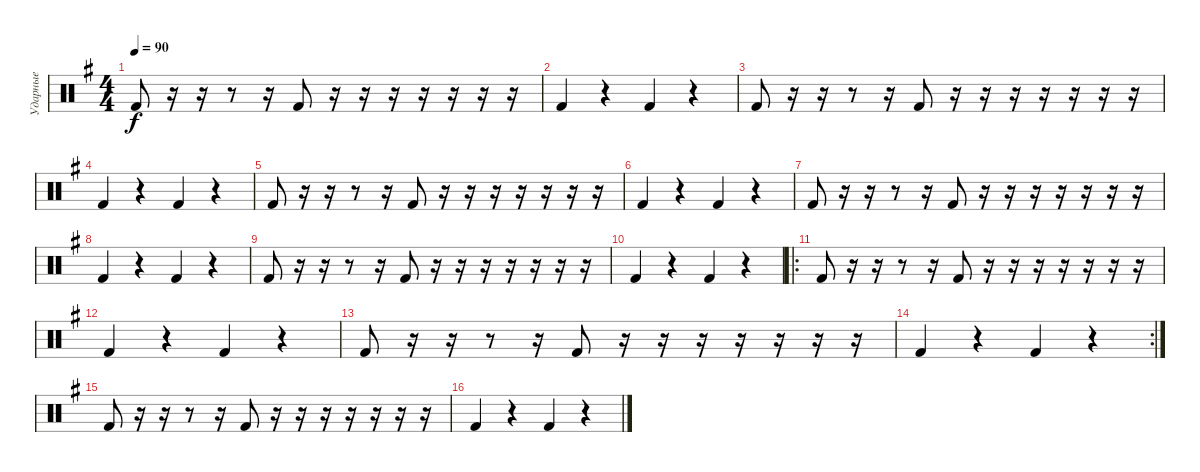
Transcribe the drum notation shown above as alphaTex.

\track ("Ударные" "Ударные") {instrument percussion}
\staff {score}
\articulation defaults
\ts (4 4)
\tempo 90
\clef neutral
\ks g "Kick (hit) 2".8{dy f}
r.16 r.16 r.8 r.16 "Kick (hit) 2".8 r.16 r.16 r.16 r.16 r.16 r.16 r.16 |
"Kick (hit) 2".4 r.4 "Kick (hit) 2".4 r.4 |
"Kick (hit) 2".8 r.16 r.16 r.8 r.16 "Kick (hit) 2".8 r.16 r.16 r.16 r.16 r.16 r.16 r.16 |
"Kick (hit) 2".4 r.4 "Kick (hit) 2".4 r.4 |
"Kick (hit) 2".8 r.16 r.16 r.8 r.16 "Kick (hit) 2".8 r.16 r.16 r.16 r.16 r.16 r.16 r.16 |
"Kick (hit) 2".4 r.4 "Kick (hit) 2".4 r.4 |
"Kick (hit) 2".8 r.16 r.16 r.8 r.16 "Kick (hit) 2".8 r.16 r.16 r.16 r.16 r.16 r.16 r.16 |
"Kick (hit) 2".4 r.4 "Kick (hit) 2".4 r.4 |
"Kick (hit) 2".8 r.16 r.16 r.8 r.16 "Kick (hit) 2".8 r.16 r.16 r.16 r.16 r.16 r.16 r.16 |
"Kick (hit) 2".4 r.4 "Kick (hit) 2".4 r.4 |
\ro "Kick (hit) 2".8
r.16 r.16 r.8 r.16 "Kick (hit) 2".8 r.16 r.16 r.16 r.16 r.16 r.16 r.16 |
"Kick (hit) 2".4 r.4 "Kick (hit) 2".4 r.4 |
"Kick (hit) 2".8 r.16 r.16 r.8 r.16 "Kick (hit) 2".8 r.16 r.16 r.16 r.16 r.16 r.16 r.16 |
\rc 2 "Kick (hit) 2".4
r.4 "Kick (hit) 2".4 r.4 |
"Kick (hit) 2".8 r.16 r.16 r.8 r.16 "Kick (hit) 2".8 r.16 r.16 r.16 r.16 r.16 r.16 r.16 |
"Kick (hit) 2".4 r.4 "Kick (hit) 2".4 r.4
